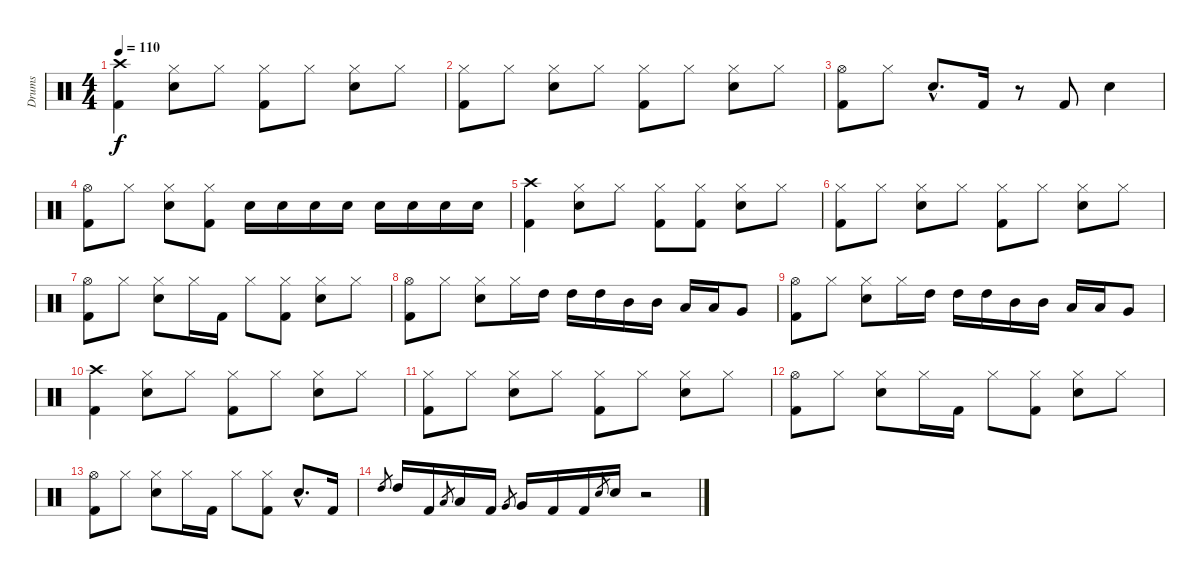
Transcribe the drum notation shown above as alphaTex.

\track ("Drums" "Drums") {instrument percussion}
\staff {score}
\articulation defaults
\ts (4 4)
\tempo 110
\clef neutral
\ks c
("Crash high (hit)" "Kick (hit) 2").4{dy f} ("Hi-Hat (closed)" "Electric Snare (hit)").8 "Hi-Hat (closed)".8 ("Hi-Hat (closed)" "Kick (hit) 2").8 "Hi-Hat (closed)".8 ("Hi-Hat (closed)" "Electric Snare (hit)").8 "Hi-Hat (closed)".8 |
("Hi-Hat (closed)" "Kick (hit) 2").8 "Hi-Hat (closed)".8 ("Hi-Hat (closed)" "Electric Snare (hit)").8 "Hi-Hat (closed)".8 ("Hi-Hat (closed)" "Kick (hit) 2").8 "Hi-Hat (closed)".8 ("Hi-Hat (closed)" "Electric Snare (hit)").8 "Hi-Hat (closed)".8 |
("Hi-Hat (open)" "Kick (hit) 2").8 "Hi-Hat (closed)".8 "Electric Snare (hit)"{hac}.8{d} "Kick (hit) 2".16 r.8 "Kick (hit) 2".8 "Electric Snare (hit)".4 |
("Hi-Hat (open)" "Kick (hit) 2").8 "Hi-Hat (closed)".8 ("Hi-Hat (closed)" "Electric Snare (hit)").8 ("Hi-Hat (closed)" "Kick (hit) 2").8 "Electric Snare (hit)".16 "Electric Snare (hit)".16 "Electric Snare (hit)".16 "Electric Snare (hit)".16 "Electric Snare (hit)".16 "Electric Snare (hit)".16 "Electric Snare (hit)".16 "Electric Snare (hit)".16 |
("Crash high (hit)" "Kick (hit) 2").4 ("Hi-Hat (closed)" "Electric Snare (hit)").8 "Hi-Hat (closed)".8 ("Hi-Hat (closed)" "Kick (hit) 2").8 ("Hi-Hat (closed)" "Kick (hit) 2").8 ("Hi-Hat (closed)" "Electric Snare (hit)").8 "Hi-Hat (closed)".8 |
("Hi-Hat (closed)" "Kick (hit) 2").8 "Hi-Hat (closed)".8 ("Hi-Hat (closed)" "Electric Snare (hit)").8 "Hi-Hat (closed)".8 ("Hi-Hat (closed)" "Kick (hit) 2").8 "Hi-Hat (closed)".8 ("Hi-Hat (closed)" "Electric Snare (hit)").8 "Hi-Hat (closed)".8 |
("Hi-Hat (open)" "Kick (hit) 2").8 "Hi-Hat (closed)".8 ("Hi-Hat (closed)" "Electric Snare (hit)").8 "Hi-Hat (closed)".16 "Kick (hit) 2".16 "Hi-Hat (closed)".8 ("Hi-Hat (closed)" "Kick (hit) 2").8 ("Hi-Hat (closed)" "Electric Snare (hit)").8 "Hi-Hat (closed)".8 |
("Hi-Hat (open)" "Kick (hit) 2").8 "Hi-Hat (closed)".8 ("Hi-Hat (closed)" "Electric Snare (hit)").8 "Hi-Hat (closed)".16 "High Tom (hit)".16 "High Tom (hit)".16 "High Tom (hit)".16 "Mid Tom (hit)".16 "Mid Tom (hit)".16 "Low Tom (hit)".16 "Low Tom (hit)".16 "Very Low Tom (hit)".8 |
("Hi-Hat (open)" "Kick (hit) 2").8 "Hi-Hat (closed)".8 ("Hi-Hat (closed)" "Electric Snare (hit)").8 "Hi-Hat (closed)".16 "High Tom (hit)".16 "High Tom (hit)".16 "High Tom (hit)".16 "Mid Tom (hit)".16 "Mid Tom (hit)".16 "Low Tom (hit)".16 "Low Tom (hit)".16 "Very Low Tom (hit)".8 |
("Crash high (hit)" "Kick (hit) 2").4 ("Hi-Hat (closed)" "Electric Snare (hit)").8 "Hi-Hat (closed)".8 ("Hi-Hat (closed)" "Kick (hit) 2").8 "Hi-Hat (closed)".8 ("Hi-Hat (closed)" "Electric Snare (hit)").8 "Hi-Hat (closed)".8 |
("Hi-Hat (closed)" "Kick (hit) 2").8 "Hi-Hat (closed)".8 ("Hi-Hat (closed)" "Electric Snare (hit)").8 "Hi-Hat (closed)".8 ("Hi-Hat (closed)" "Kick (hit) 2").8 "Hi-Hat (closed)".8 ("Hi-Hat (closed)" "Electric Snare (hit)").8 "Hi-Hat (closed)".8 |
("Hi-Hat (open)" "Kick (hit) 2").8 "Hi-Hat (closed)".8 ("Hi-Hat (closed)" "Electric Snare (hit)").8 "Hi-Hat (closed)".16 "Kick (hit) 2".16 "Hi-Hat (closed)".8 ("Hi-Hat (closed)" "Kick (hit) 2").8 ("Hi-Hat (closed)" "Electric Snare (hit)").8 "Hi-Hat (closed)".8 |
("Hi-Hat (open)" "Kick (hit) 2").8 "Hi-Hat (closed)".8 ("Hi-Hat (closed)" "Electric Snare (hit)").8 "Hi-Hat (closed)".16 "Kick (hit) 2".16 "Hi-Hat (closed)".8 ("Hi-Hat (closed)" "Kick (hit) 2").8 "Electric Snare (hit)"{hac}.8{d} "Kick (hit) 2".16 |
"High Tom (hit)".8{gr} "High Tom (hit)".16 "Kick (hit) 2".16 "Low Tom (hit)".8{gr} "Low Tom (hit)".16 "Kick (hit) 2".16 "Very Low Tom (hit)".8{gr} "Very Low Tom (hit)".16 "Kick (hit) 2".16 "Kick (hit) 2".16 "Electric Snare (hit)".8{gr} "Electric Snare (hit)".16 r.2
